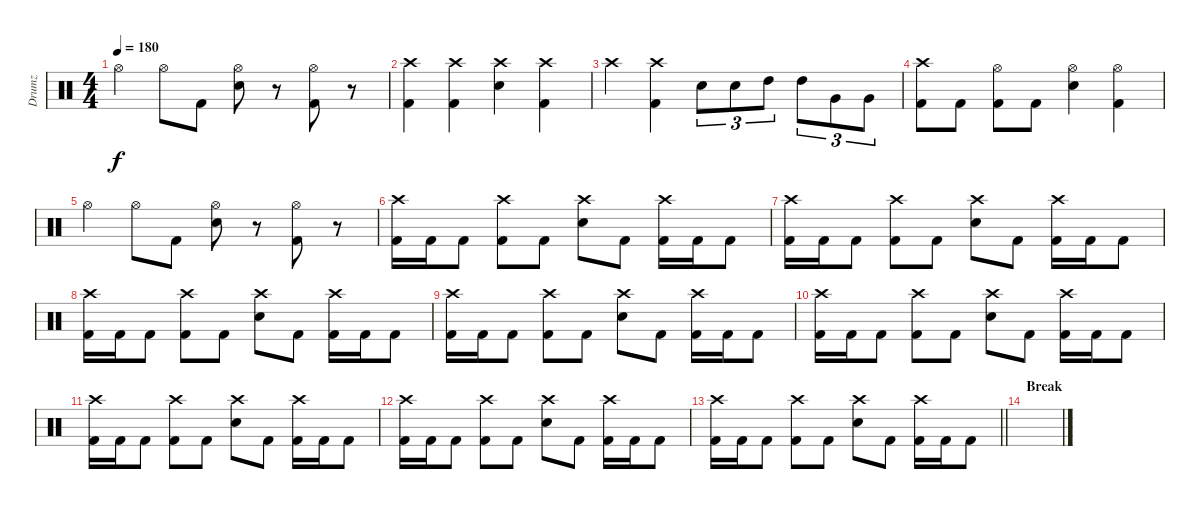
\track ("Drumz" "Drumz") {instrument percussion}
\staff {score}
\articulation defaults
\ts (4 4)
\tempo 180
\clef neutral
\ks c "Hi-Hat (open)".4{dy f} "Hi-Hat (open)".8 "Kick (hit) 2".8
("Hi-Hat (open)" "Snare (hit) 2").8 r.8 ("Kick (hit) 2" "Hi-Hat (open)").8 r.8 |
("Kick (hit) 2" "Crash high (hit)").4 ("Kick (hit) 2" "Crash high (hit)").4 ("Crash high (hit)" "Snare (hit) 2").4 ("Kick (hit) 2" "Crash high (hit)").4 |
"Crash high (hit)".4 ("Kick (hit) 2" "Crash high (hit)").4 "Snare (hit) 2".8{tu (3 2)} "Snare (hit) 2".8{tu (3 2)} "High Tom (hit)".8{tu (3 2)} "High Tom (hit)".8{tu (3 2)} "Very Low Tom (hit)".8{tu (3 2)} "Very Low Tom (hit)".8{tu (3 2)} |
("Kick (hit) 2" "Crash high (hit)").8 "Kick (hit) 2".8 ("Kick (hit) 2" "Hi-Hat (open)").8 "Kick (hit) 2".8 ("Hi-Hat (open)" "Snare (hit) 2").4 ("Kick (hit) 2" "Hi-Hat (open)").4 |
"Hi-Hat (open)".4 "Hi-Hat (open)".8 "Kick (hit) 2".8 ("Hi-Hat (open)" "Snare (hit) 2").8 r.8 ("Kick (hit) 2" "Hi-Hat (open)").8 r.8 |
("Crash high (hit)" "Kick (hit) 2").16 "Kick (hit) 2".16 "Kick (hit) 2".8 ("Crash high (hit)" "Kick (hit) 2").8 "Kick (hit) 2".8 ("Crash high (hit)" "Snare (hit) 2").8 "Kick (hit) 2".8 ("Crash high (hit)" "Kick (hit) 2").16 "Kick (hit) 2".16 "Kick (hit) 2".8 |
("Crash high (hit)" "Kick (hit) 2").16 "Kick (hit) 2".16 "Kick (hit) 2".8 ("Crash high (hit)" "Kick (hit) 2").8 "Kick (hit) 2".8 ("Crash high (hit)" "Snare (hit) 2").8 "Kick (hit) 2".8 ("Crash high (hit)" "Kick (hit) 2").16 "Kick (hit) 2".16 "Kick (hit) 2".8 |
("Crash high (hit)" "Kick (hit) 2").16 "Kick (hit) 2".16 "Kick (hit) 2".8 ("Crash high (hit)" "Kick (hit) 2").8 "Kick (hit) 2".8 ("Crash high (hit)" "Snare (hit) 2").8 "Kick (hit) 2".8 ("Crash high (hit)" "Kick (hit) 2").16 "Kick (hit) 2".16 "Kick (hit) 2".8 |
("Crash high (hit)" "Kick (hit) 2").16 "Kick (hit) 2".16 "Kick (hit) 2".8 ("Crash high (hit)" "Kick (hit) 2").8 "Kick (hit) 2".8 ("Crash high (hit)" "Snare (hit) 2").8 "Kick (hit) 2".8 ("Crash high (hit)" "Kick (hit) 2").16 "Kick (hit) 2".16 "Kick (hit) 2".8 |
("Crash high (hit)" "Kick (hit) 2").16 "Kick (hit) 2".16 "Kick (hit) 2".8 ("Crash high (hit)" "Kick (hit) 2").8 "Kick (hit) 2".8 ("Crash high (hit)" "Snare (hit) 2").8 "Kick (hit) 2".8 ("Crash high (hit)" "Kick (hit) 2").16 "Kick (hit) 2".16 "Kick (hit) 2".8 |
("Crash high (hit)" "Kick (hit) 2").16 "Kick (hit) 2".16 "Kick (hit) 2".8 ("Crash high (hit)" "Kick (hit) 2").8 "Kick (hit) 2".8 ("Crash high (hit)" "Snare (hit) 2").8 "Kick (hit) 2".8 ("Crash high (hit)" "Kick (hit) 2").16 "Kick (hit) 2".16 "Kick (hit) 2".8 |
("Crash high (hit)" "Kick (hit) 2").16 "Kick (hit) 2".16 "Kick (hit) 2".8 ("Crash high (hit)" "Kick (hit) 2").8 "Kick (hit) 2".8 ("Crash high (hit)" "Snare (hit) 2").8 "Kick (hit) 2".8 ("Crash high (hit)" "Kick (hit) 2").16 "Kick (hit) 2".16 "Kick (hit) 2".8 |
\barLineRight lightlight
("Crash high (hit)" "Kick (hit) 2").16 "Kick (hit) 2".16 "Kick (hit) 2".8 ("Crash high (hit)" "Kick (hit) 2").8 "Kick (hit) 2".8 ("Crash high (hit)" "Snare (hit) 2").8 "Kick (hit) 2".8 ("Crash high (hit)" "Kick (hit) 2").16 "Kick (hit) 2".16 "Kick (hit) 2".8 |
\section ("" "Break")
